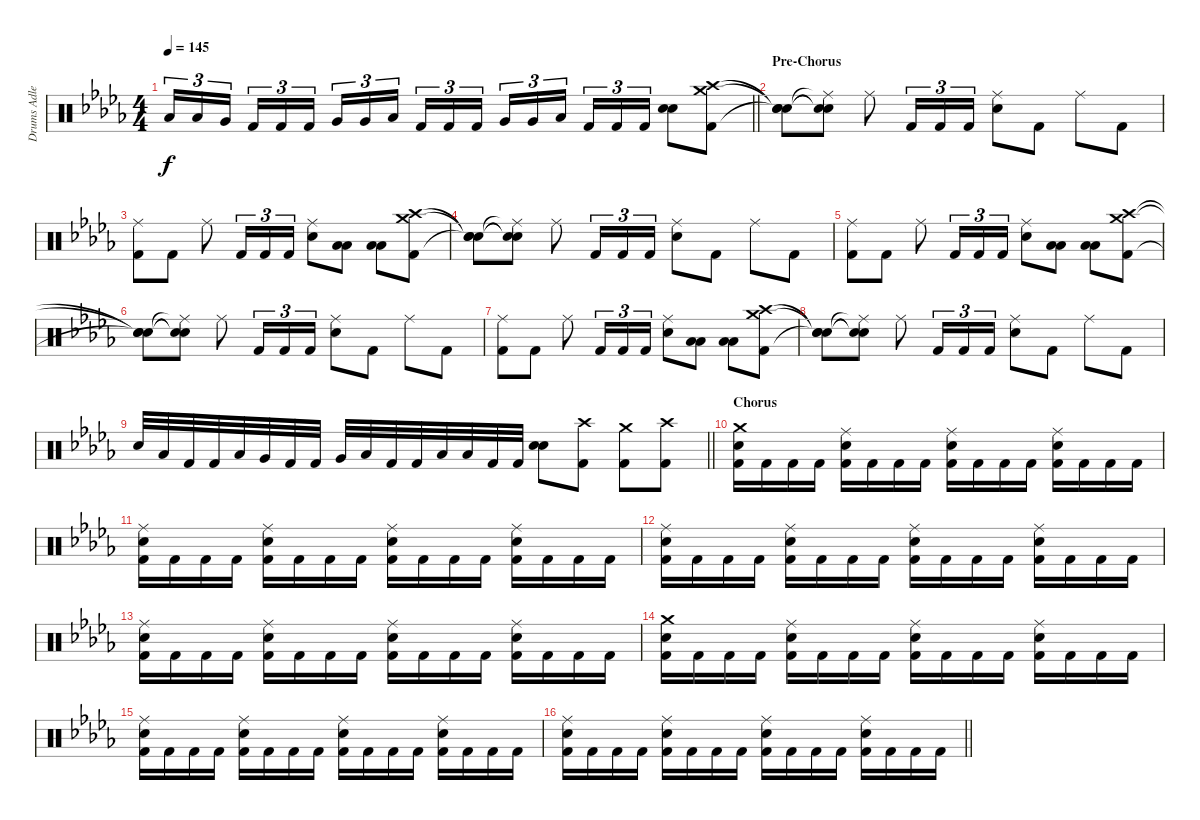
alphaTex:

\track ("Drums Adler" "Drums Adle") {instrument percussion}
\staff {score}
\articulation defaults
\ts (4 4)
\tempo 145
\clef neutral
\barLineRight lightlight
\ks db "Low Tom (hit)".16{tu (3 2) dy f} "Low Tom (hit)".16{tu (3 2)} "Very Low Tom (hit)".16{tu (3 2) beam splitsecondary} "Kick (hit) 2".16{tu (3 2)} "Kick (hit) 2".16{tu (3 2)} "Kick (hit) 2".16{tu (3 2)} "Very Low Tom (hit)".16{tu (3 2)} "Very Low Tom (hit)".16{tu (3 2)} "Low Floor Tom (hit)".16{tu (3 2) beam splitsecondary} "Kick (hit) 2".16{tu (3 2)} "Kick (hit) 2".16{tu (3 2)} "Kick (hit) 2".16{tu (3 2)} "Very Low Tom (hit)".16{tu (3 2)} "Very Low Tom (hit)".16{tu (3 2)} "Low Floor Tom (hit)".16{tu (3 2) beam splitsecondary} "Kick (hit) 2".16{tu (3 2)} "Kick (hit) 2".16{tu (3 2)} "Kick (hit) 2".16{tu (3 2)}
("Snare (hit) 2" "Snare (hit) 2").8{bd 60} ("Crash medium (hit)" "Crash high (hit)" "Kick (hit) 2").8 |
\section ("" "Pre-Chorus")
("Snare (hit)"{t} "Snare (hit)"{t} "Snare (hit)"{t}).8 ("Ride (middle)"{t} "Snare (hit)"{t} "Snare (hit)"{t}).8 "Ride (middle)".8 "Kick (hit) 2".16{tu (3 2)} "Kick (hit) 2".16{tu (3 2)} "Kick (hit) 2".16{tu (3 2)} ("Ride (middle)" "Snare (hit) 2").8 "Kick (hit) 2".8 "Ride (middle)".8 "Kick (hit) 2".8 |
("Ride (middle)" "Kick (hit) 2").8 "Kick (hit) 2".8 "Ride (middle)".8 "Kick (hit) 2".16{tu (3 2)} "Kick (hit) 2".16{tu (3 2)} "Kick (hit) 2".16{tu (3 2)} ("Ride (middle)" "Snare (hit) 2").8 ("Low Floor Tom (hit)" "Low Tom (hit)").8 ("Low Floor Tom (hit)" "Low Tom (hit)").8 ("Crash medium (hit)" "Crash high (hit)" "Kick (hit) 2").8 |
("Snare (hit)"{t} "Snare (hit)"{t} "Snare (hit)"{t}).8 ("Ride (middle)"{t} "Snare (hit)"{t} "Snare (hit)"{t}).8 "Ride (middle)".8 "Kick (hit) 2".16{tu (3 2)} "Kick (hit) 2".16{tu (3 2)} "Kick (hit) 2".16{tu (3 2)} ("Ride (middle)" "Snare (hit) 2").8 "Kick (hit) 2".8 "Ride (middle)".8 "Kick (hit) 2".8 |
("Ride (middle)" "Kick (hit) 2").8 "Kick (hit) 2".8 "Ride (middle)".8 "Kick (hit) 2".16{tu (3 2)} "Kick (hit) 2".16{tu (3 2)} "Kick (hit) 2".16{tu (3 2)} ("Ride (middle)" "Snare (hit) 2").8 ("Low Floor Tom (hit)" "Low Tom (hit)").8 ("Low Floor Tom (hit)" "Low Tom (hit)").8 ("Crash medium (hit)" "Crash high (hit)" "Kick (hit) 2").8 |
("Snare (hit)"{t} "Snare (hit)"{t} "Snare (hit)"{t}).8 ("Ride (middle)"{t} "Snare (hit)"{t} "Snare (hit)"{t}).8 "Ride (middle)".8 "Kick (hit) 2".16{tu (3 2)} "Kick (hit) 2".16{tu (3 2)} "Kick (hit) 2".16{tu (3 2)} ("Ride (middle)" "Snare (hit) 2").8 "Kick (hit) 2".8 "Ride (middle)".8 "Kick (hit) 2".8 |
("Ride (middle)" "Kick (hit) 2").8 "Kick (hit) 2".8 "Ride (middle)".8 "Kick (hit) 2".16{tu (3 2)} "Kick (hit) 2".16{tu (3 2)} "Kick (hit) 2".16{tu (3 2)} ("Ride (middle)" "Snare (hit) 2").8 ("Low Floor Tom (hit)" "Low Tom (hit)").8 ("Low Floor Tom (hit)" "Low Tom (hit)").8 ("Crash medium (hit)" "Crash high (hit)" "Kick (hit) 2").8 |
("Snare (hit)"{t} "Snare (hit)"{t} "Snare (hit)"{t}).8 ("Ride (middle)"{t} "Snare (hit)"{t} "Snare (hit)"{t}).8 "Ride (middle)".8 "Kick (hit) 2".16{tu (3 2)} "Kick (hit) 2".16{tu (3 2)} "Kick (hit) 2".16{tu (3 2)} ("Ride (middle)" "Snare (hit) 2").8 "Kick (hit) 2".8 "Ride (middle)".8 "Kick (hit) 2".8 |
\barLineRight lightlight "Snare (hit) 2".32 "Low Tom (hit)".32 "Kick (hit) 2".32 "Kick (hit) 2".32 "Low Tom (hit)".32 "Very Low Tom (hit)".32 "Kick (hit) 2".32 "Kick (hit) 2".32 "Very Low Tom (hit)".32 "Low Floor Tom (hit)".32 "Kick (hit) 2".32 "Kick (hit) 2".32 "Low Floor Tom (hit)".32 "Low Floor Tom (hit)".32 "Kick (hit) 2".32 "Kick (hit) 2".32
("Snare (hit) 2" "Snare (hit) 2").8{bd 60} ("Crash high (hit)" "Kick (hit) 2").8 ("Crash medium (hit)" "Kick (hit) 2").8 ("Crash high (hit)" "Kick (hit) 2").8 |
\section ("" "Chorus")
("Crash medium (hit)" "Snare (hit) 2" "Kick (hit) 2").16 "Kick (hit) 2".16 "Kick (hit) 2".16 "Kick (hit) 2".16 ("Ride (middle)" "Snare (hit) 2" "Kick (hit) 2").16 "Kick (hit) 2".16 "Kick (hit) 2".16 "Kick (hit) 2".16 ("Ride (middle)" "Snare (hit) 2" "Kick (hit) 2").16 "Kick (hit) 2".16 "Kick (hit) 2".16 "Kick (hit) 2".16 ("Ride (middle)" "Snare (hit) 2" "Kick (hit) 2").16 "Kick (hit) 2".16 "Kick (hit) 2".16 "Kick (hit) 2".16 |
("Ride (middle)" "Snare (hit) 2" "Kick (hit) 2").16 "Kick (hit) 2".16 "Kick (hit) 2".16 "Kick (hit) 2".16 ("Ride (middle)" "Snare (hit) 2" "Kick (hit) 2").16 "Kick (hit) 2".16 "Kick (hit) 2".16 "Kick (hit) 2".16 ("Ride (middle)" "Snare (hit) 2" "Kick (hit) 2").16 "Kick (hit) 2".16 "Kick (hit) 2".16 "Kick (hit) 2".16 ("Ride (middle)" "Snare (hit) 2" "Kick (hit) 2").16 "Kick (hit) 2".16 "Kick (hit) 2".16 "Kick (hit) 2".16 |
("Ride (middle)" "Snare (hit) 2" "Kick (hit) 2").16 "Kick (hit) 2".16 "Kick (hit) 2".16 "Kick (hit) 2".16 ("Ride (middle)" "Snare (hit) 2" "Kick (hit) 2").16 "Kick (hit) 2".16 "Kick (hit) 2".16 "Kick (hit) 2".16 ("Ride (middle)" "Snare (hit) 2" "Kick (hit) 2").16 "Kick (hit) 2".16 "Kick (hit) 2".16 "Kick (hit) 2".16 ("Ride (middle)" "Snare (hit) 2" "Kick (hit) 2").16 "Kick (hit) 2".16 "Kick (hit) 2".16 "Kick (hit) 2".16 |
("Ride (middle)" "Snare (hit) 2" "Kick (hit) 2").16 "Kick (hit) 2".16 "Kick (hit) 2".16 "Kick (hit) 2".16 ("Ride (middle)" "Snare (hit) 2" "Kick (hit) 2").16 "Kick (hit) 2".16 "Kick (hit) 2".16 "Kick (hit) 2".16 ("Ride (middle)" "Snare (hit) 2" "Kick (hit) 2").16 "Kick (hit) 2".16 "Kick (hit) 2".16 "Kick (hit) 2".16 ("Ride (middle)" "Snare (hit) 2" "Kick (hit) 2").16 "Kick (hit) 2".16 "Kick (hit) 2".16 "Kick (hit) 2".16 |
("Crash medium (hit)" "Snare (hit) 2" "Kick (hit) 2").16 "Kick (hit) 2".16 "Kick (hit) 2".16 "Kick (hit) 2".16 ("Ride (middle)" "Snare (hit) 2" "Kick (hit) 2").16 "Kick (hit) 2".16 "Kick (hit) 2".16 "Kick (hit) 2".16 ("Ride (middle)" "Snare (hit) 2" "Kick (hit) 2").16 "Kick (hit) 2".16 "Kick (hit) 2".16 "Kick (hit) 2".16 ("Ride (middle)" "Snare (hit) 2" "Kick (hit) 2").16 "Kick (hit) 2".16 "Kick (hit) 2".16 "Kick (hit) 2".16 |
("Ride (middle)" "Snare (hit) 2" "Kick (hit) 2").16 "Kick (hit) 2".16 "Kick (hit) 2".16 "Kick (hit) 2".16 ("Ride (middle)" "Snare (hit) 2" "Kick (hit) 2").16 "Kick (hit) 2".16 "Kick (hit) 2".16 "Kick (hit) 2".16 ("Ride (middle)" "Snare (hit) 2" "Kick (hit) 2").16 "Kick (hit) 2".16 "Kick (hit) 2".16 "Kick (hit) 2".16 ("Ride (middle)" "Snare (hit) 2" "Kick (hit) 2").16 "Kick (hit) 2".16 "Kick (hit) 2".16 "Kick (hit) 2".16 |
\barLineRight lightlight
("Ride (middle)" "Snare (hit) 2" "Kick (hit) 2").16 "Kick (hit) 2".16 "Kick (hit) 2".16 "Kick (hit) 2".16 ("Ride (middle)" "Snare (hit) 2" "Kick (hit) 2").16 "Kick (hit) 2".16 "Kick (hit) 2".16 "Kick (hit) 2".16 ("Ride (middle)" "Snare (hit) 2" "Kick (hit) 2").16 "Kick (hit) 2".16 "Kick (hit) 2".16 "Kick (hit) 2".16 ("Ride (middle)" "Snare (hit) 2" "Kick (hit) 2").16 "Kick (hit) 2".16 "Kick (hit) 2".16 "Kick (hit) 2".16
